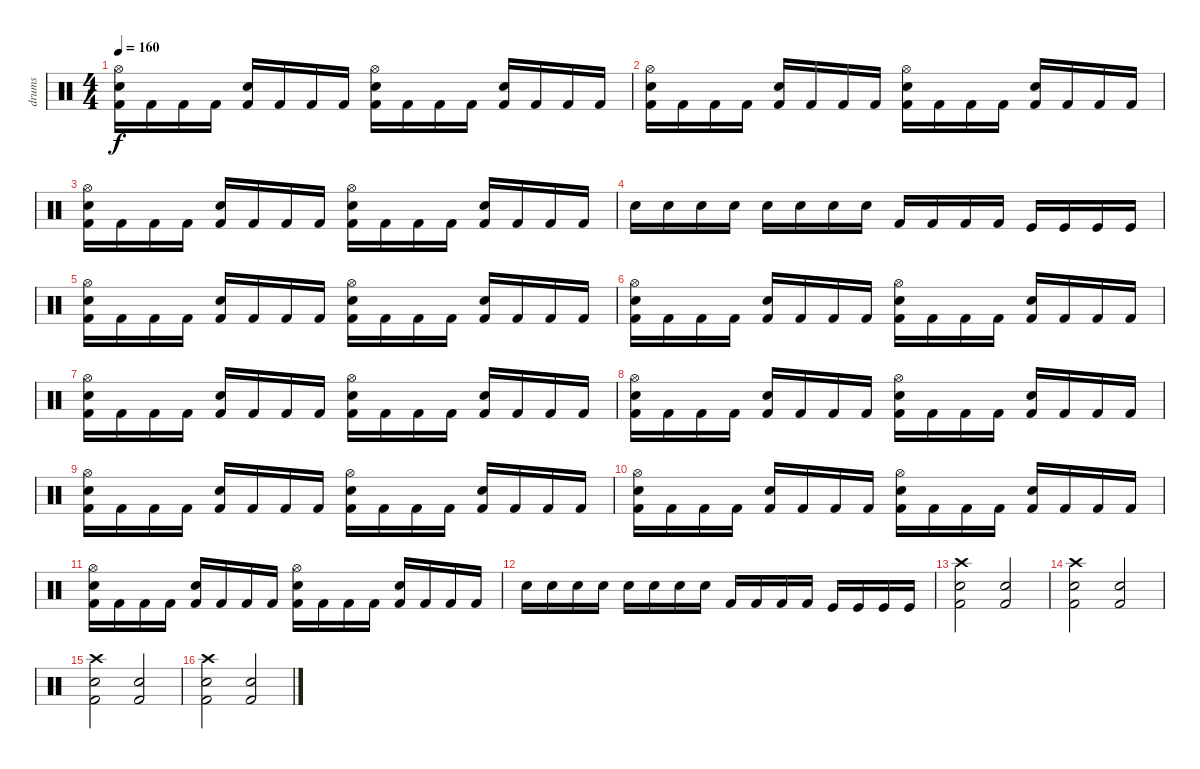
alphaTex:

\track ("drums" "drums") {instrument percussion}
\staff {score}
\articulation defaults
\ts (4 4)
\tempo 160
\clef neutral
\ks c
("Hi-Hat (open)" "Electric Snare (hit)" "Kick (hit) 2").16{dy f} "Kick (hit) 2".16 "Kick (hit) 2".16 "Kick (hit) 2".16 ("Electric Snare (hit)" "Kick (hit) 2").16 "Kick (hit) 2".16 "Kick (hit) 2".16 "Kick (hit) 2".16 ("Hi-Hat (open)" "Electric Snare (hit)" "Kick (hit) 2").16 "Kick (hit) 2".16 "Kick (hit) 2".16 "Kick (hit) 2".16 ("Electric Snare (hit)" "Kick (hit) 2").16 "Kick (hit) 2".16 "Kick (hit) 2".16 "Kick (hit) 2".16 |
("Hi-Hat (open)" "Electric Snare (hit)" "Kick (hit) 2").16 "Kick (hit) 2".16 "Kick (hit) 2".16 "Kick (hit) 2".16 ("Electric Snare (hit)" "Kick (hit) 2").16 "Kick (hit) 2".16 "Kick (hit) 2".16 "Kick (hit) 2".16 ("Hi-Hat (open)" "Electric Snare (hit)" "Kick (hit) 2").16 "Kick (hit) 2".16 "Kick (hit) 2".16 "Kick (hit) 2".16 ("Electric Snare (hit)" "Kick (hit) 2").16 "Kick (hit) 2".16 "Kick (hit) 2".16 "Kick (hit) 2".16 |
("Hi-Hat (open)" "Electric Snare (hit)" "Kick (hit) 2").16 "Kick (hit) 2".16 "Kick (hit) 2".16 "Kick (hit) 2".16 ("Electric Snare (hit)" "Kick (hit) 2").16 "Kick (hit) 2".16 "Kick (hit) 2".16 "Kick (hit) 2".16 ("Hi-Hat (open)" "Electric Snare (hit)" "Kick (hit) 2").16 "Kick (hit) 2".16 "Kick (hit) 2".16 "Kick (hit) 2".16 ("Electric Snare (hit)" "Kick (hit) 2").16 "Kick (hit) 2".16 "Kick (hit) 2".16 "Kick (hit) 2".16 |
"Electric Snare (hit)".16 "Electric Snare (hit)".16 "Electric Snare (hit)".16 "Electric Snare (hit)".16 "Snare (hit) 2".16 "Snare (hit) 2".16 "Snare (hit) 2".16 "Snare (hit) 2".16 "Kick (hit) 2".16 "Kick (hit) 2".16 "Kick (hit) 2".16 "Kick (hit) 2".16 "Kick (hit)".16 "Kick (hit)".16 "Kick (hit)".16 "Kick (hit)".16 |
("Hi-Hat (open)" "Electric Snare (hit)" "Kick (hit) 2").16{volume 12} "Kick (hit) 2".16 "Kick (hit) 2".16 "Kick (hit) 2".16 ("Electric Snare (hit)" "Kick (hit) 2").16 "Kick (hit) 2".16 "Kick (hit) 2".16 "Kick (hit) 2".16 ("Hi-Hat (open)" "Electric Snare (hit)" "Kick (hit) 2").16 "Kick (hit) 2".16 "Kick (hit) 2".16 "Kick (hit) 2".16 ("Electric Snare (hit)" "Kick (hit) 2").16 "Kick (hit) 2".16 "Kick (hit) 2".16 "Kick (hit) 2".16 |
("Hi-Hat (open)" "Electric Snare (hit)" "Kick (hit) 2").16 "Kick (hit) 2".16 "Kick (hit) 2".16 "Kick (hit) 2".16 ("Electric Snare (hit)" "Kick (hit) 2").16 "Kick (hit) 2".16 "Kick (hit) 2".16 "Kick (hit) 2".16 ("Hi-Hat (open)" "Electric Snare (hit)" "Kick (hit) 2").16 "Kick (hit) 2".16 "Kick (hit) 2".16 "Kick (hit) 2".16 ("Electric Snare (hit)" "Kick (hit) 2").16 "Kick (hit) 2".16 "Kick (hit) 2".16 "Kick (hit) 2".16 |
("Hi-Hat (open)" "Electric Snare (hit)" "Kick (hit) 2").16 "Kick (hit) 2".16 "Kick (hit) 2".16 "Kick (hit) 2".16 ("Electric Snare (hit)" "Kick (hit) 2").16 "Kick (hit) 2".16 "Kick (hit) 2".16 "Kick (hit) 2".16 ("Hi-Hat (open)" "Electric Snare (hit)" "Kick (hit) 2").16 "Kick (hit) 2".16 "Kick (hit) 2".16 "Kick (hit) 2".16 ("Electric Snare (hit)" "Kick (hit) 2").16 "Kick (hit) 2".16 "Kick (hit) 2".16 "Kick (hit) 2".16 |
("Hi-Hat (open)" "Electric Snare (hit)" "Kick (hit) 2").16 "Kick (hit) 2".16 "Kick (hit) 2".16 "Kick (hit) 2".16 ("Electric Snare (hit)" "Kick (hit) 2").16 "Kick (hit) 2".16 "Kick (hit) 2".16 "Kick (hit) 2".16 ("Hi-Hat (open)" "Electric Snare (hit)" "Kick (hit) 2").16 "Kick (hit) 2".16 "Kick (hit) 2".16 "Kick (hit) 2".16 ("Electric Snare (hit)" "Kick (hit) 2").16 "Kick (hit) 2".16 "Kick (hit) 2".16 "Kick (hit) 2".16 |
("Hi-Hat (open)" "Electric Snare (hit)" "Kick (hit) 2").16 "Kick (hit) 2".16 "Kick (hit) 2".16 "Kick (hit) 2".16 ("Electric Snare (hit)" "Kick (hit) 2").16 "Kick (hit) 2".16 "Kick (hit) 2".16 "Kick (hit) 2".16 ("Hi-Hat (open)" "Electric Snare (hit)" "Kick (hit) 2").16 "Kick (hit) 2".16 "Kick (hit) 2".16 "Kick (hit) 2".16 ("Electric Snare (hit)" "Kick (hit) 2").16 "Kick (hit) 2".16 "Kick (hit) 2".16 "Kick (hit) 2".16 |
("Hi-Hat (open)" "Electric Snare (hit)" "Kick (hit) 2").16 "Kick (hit) 2".16 "Kick (hit) 2".16 "Kick (hit) 2".16 ("Electric Snare (hit)" "Kick (hit) 2").16 "Kick (hit) 2".16 "Kick (hit) 2".16 "Kick (hit) 2".16 ("Hi-Hat (open)" "Electric Snare (hit)" "Kick (hit) 2").16 "Kick (hit) 2".16 "Kick (hit) 2".16 "Kick (hit) 2".16 ("Electric Snare (hit)" "Kick (hit) 2").16 "Kick (hit) 2".16 "Kick (hit) 2".16 "Kick (hit) 2".16 |
("Hi-Hat (open)" "Electric Snare (hit)" "Kick (hit) 2").16 "Kick (hit) 2".16 "Kick (hit) 2".16 "Kick (hit) 2".16 ("Electric Snare (hit)" "Kick (hit) 2").16 "Kick (hit) 2".16 "Kick (hit) 2".16 "Kick (hit) 2".16 ("Hi-Hat (open)" "Electric Snare (hit)" "Kick (hit) 2").16 "Kick (hit) 2".16 "Kick (hit) 2".16 "Kick (hit) 2".16 ("Electric Snare (hit)" "Kick (hit) 2").16 "Kick (hit) 2".16 "Kick (hit) 2".16 "Kick (hit) 2".16 |
"Electric Snare (hit)".16 "Electric Snare (hit)".16 "Electric Snare (hit)".16 "Electric Snare (hit)".16 "Snare (hit) 2".16 "Snare (hit) 2".16 "Snare (hit) 2".16 "Snare (hit) 2".16 "Kick (hit) 2".16 "Kick (hit) 2".16 "Kick (hit) 2".16 "Kick (hit) 2".16 "Kick (hit)".16 "Kick (hit)".16 "Kick (hit)".16 "Kick (hit)".16 |
("Crash high (hit)" "Electric Snare (hit)" "Kick (hit) 2").2 ("Snare (hit) 2" "Kick (hit) 2").2 |
("Crash high (hit)" "Electric Snare (hit)" "Kick (hit) 2").2 ("Snare (hit) 2" "Kick (hit) 2").2 |
("Crash high (hit)" "Electric Snare (hit)" "Kick (hit) 2").2 ("Snare (hit) 2" "Kick (hit) 2").2 |
("Crash high (hit)" "Electric Snare (hit)" "Kick (hit) 2").2 ("Snare (hit) 2" "Kick (hit) 2").2
